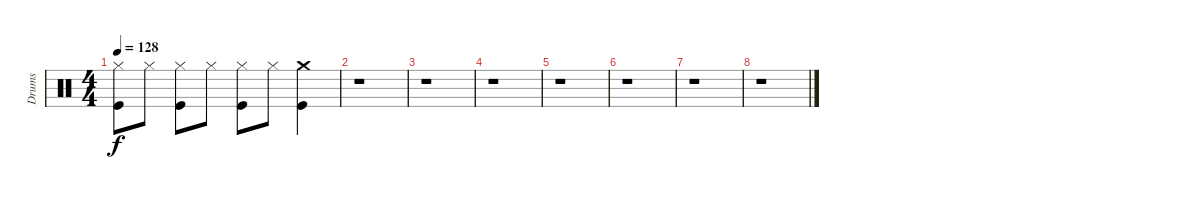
\track ("Drums" "Drums") {instrument percussion}
\staff {score}
\articulation defaults
\ts (4 4)
\tempo 128
\clef neutral
\ks c
("Hi-Hat (closed)" "Kick (hit)").8{dy f} "Hi-Hat (closed)".8 ("Hi-Hat (closed)" "Kick (hit)").8 "Hi-Hat (closed)".8 ("Hi-Hat (closed)" "Kick (hit)").8 "Hi-Hat (closed)".8 ("Crash medium (hit)" "Kick (hit)").4 |
r.1 |
r.1 |
r.1 |
r.1 |
r.1 |
r.1 |
r.1
